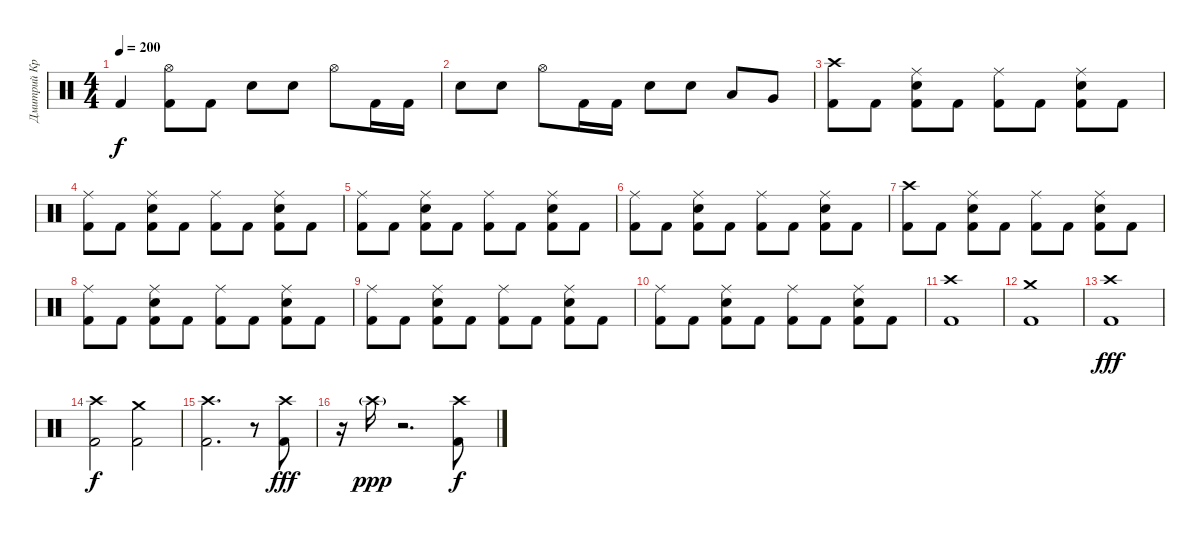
\track ("Дмитрий Кривенков" "Дмитрий Кр") {instrument percussion}
\staff {score}
\articulation defaults
\ts (4 4)
\tempo 200
\clef neutral
\ks c "Kick (hit) 2".4{dy f}
("Hi-Hat (open)" "Kick (hit) 2").8 "Kick (hit) 2".8 "Electric Snare (hit)".8 "Electric Snare (hit)".8 "Hi-Hat (open)".8 "Kick (hit) 2".16 "Kick (hit) 2".16 |
"Electric Snare (hit)".8 "Electric Snare (hit)".8 "Hi-Hat (open)".8 "Kick (hit) 2".16 "Kick (hit) 2".16 "Electric Snare (hit)".8 "Electric Snare (hit)".8 "Low Tom (hit)".8 "Very Low Tom (hit)".8 |
("Crash high (hit)" "Kick (hit) 2").8 "Kick (hit) 2".8 ("Ride (middle)" "Electric Snare (hit)" "Kick (hit) 2").8 "Kick (hit) 2".8 ("Ride (middle)" "Kick (hit) 2").8 "Kick (hit) 2".8 ("Ride (middle)" "Electric Snare (hit)" "Kick (hit) 2").8 "Kick (hit) 2".8 |
("Ride (middle)" "Kick (hit) 2").8 "Kick (hit) 2".8 ("Ride (middle)" "Electric Snare (hit)" "Kick (hit) 2").8 "Kick (hit) 2".8 ("Ride (middle)" "Kick (hit) 2").8 "Kick (hit) 2".8 ("Ride (middle)" "Electric Snare (hit)" "Kick (hit) 2").8 "Kick (hit) 2".8 |
("Ride (middle)" "Kick (hit) 2").8 "Kick (hit) 2".8 ("Ride (middle)" "Electric Snare (hit)" "Kick (hit) 2").8 "Kick (hit) 2".8 ("Ride (middle)" "Kick (hit) 2").8 "Kick (hit) 2".8 ("Ride (middle)" "Electric Snare (hit)" "Kick (hit) 2").8 "Kick (hit) 2".8 |
("Ride (middle)" "Kick (hit) 2").8 "Kick (hit) 2".8 ("Ride (middle)" "Electric Snare (hit)" "Kick (hit) 2").8 "Kick (hit) 2".8 ("Ride (middle)" "Kick (hit) 2").8 "Kick (hit) 2".8 ("Ride (middle)" "Electric Snare (hit)" "Kick (hit) 2").8 "Kick (hit) 2".8 |
("Crash high (hit)" "Kick (hit) 2").8 "Kick (hit) 2".8 ("Ride (middle)" "Electric Snare (hit)" "Kick (hit) 2").8 "Kick (hit) 2".8 ("Ride (middle)" "Kick (hit) 2").8 "Kick (hit) 2".8 ("Ride (middle)" "Electric Snare (hit)" "Kick (hit) 2").8 "Kick (hit) 2".8 |
("Ride (middle)" "Kick (hit) 2").8 "Kick (hit) 2".8 ("Ride (middle)" "Electric Snare (hit)" "Kick (hit) 2").8 "Kick (hit) 2".8 ("Ride (middle)" "Kick (hit) 2").8 "Kick (hit) 2".8 ("Ride (middle)" "Electric Snare (hit)" "Kick (hit) 2").8 "Kick (hit) 2".8 |
("Ride (middle)" "Kick (hit) 2").8 "Kick (hit) 2".8 ("Ride (middle)" "Electric Snare (hit)" "Kick (hit) 2").8 "Kick (hit) 2".8 ("Ride (middle)" "Kick (hit) 2").8 "Kick (hit) 2".8 ("Ride (middle)" "Electric Snare (hit)" "Kick (hit) 2").8 "Kick (hit) 2".8 |
("Ride (middle)" "Kick (hit) 2").8 "Kick (hit) 2".8 ("Ride (middle)" "Electric Snare (hit)" "Kick (hit) 2").8 "Kick (hit) 2".8 ("Ride (middle)" "Kick (hit) 2").8 "Kick (hit) 2".8 ("Ride (middle)" "Electric Snare (hit)" "Kick (hit) 2").8 "Kick (hit) 2".8 |
("Crash high (hit)" "Kick (hit) 2").1 |
("Crash medium (hit)" "Kick (hit) 2").1 |
("Crash high (hit)" "Kick (hit) 2").1{dy fff} |
("Crash high (hit)" "Kick (hit) 2").2{dy f} ("Crash medium (hit)" "Kick (hit) 2").2 |
("Crash high (hit)" "Kick (hit) 2").2{d} r.8 ("Crash high (hit)" "Kick (hit) 2").8{dy fff} |
r.16 "Crash high (hit)"{g}.16{dy ppp} r.2{d} ("Crash high (hit)" "Kick (hit) 2").8{dy f}
